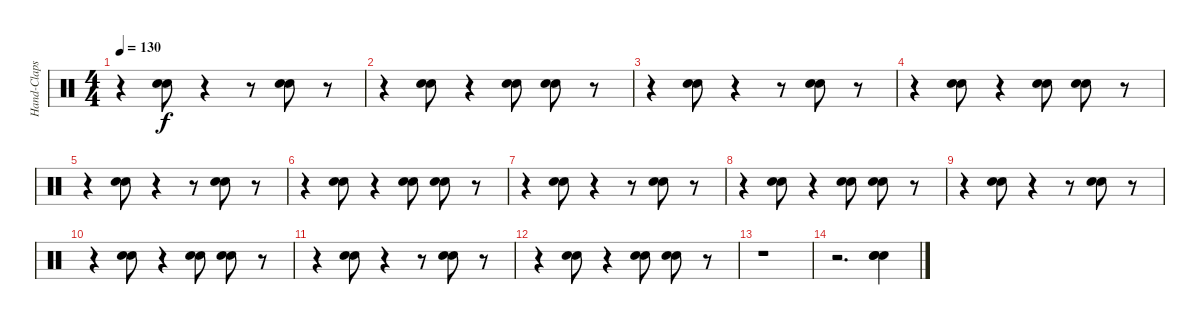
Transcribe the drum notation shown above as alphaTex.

\track ("Hand-Claps" "Hand-Claps") {instrument percussion}
\staff {score}
\articulation defaults
\ts (4 4)
\tempo 130
\clef neutral
\ks c
r.4{dy f} ("Hand Clap (hit)" "Hand Clap (hit)").8 r.4 r.8 ("Hand Clap (hit)" "Hand Clap (hit)").8 r.8 |
r.4 ("Hand Clap (hit)" "Hand Clap (hit)").8 r.4 ("Hand Clap (hit)" "Hand Clap (hit)").8 ("Hand Clap (hit)" "Hand Clap (hit)").8 r.8 |
r.4 ("Hand Clap (hit)" "Hand Clap (hit)").8 r.4 r.8 ("Hand Clap (hit)" "Hand Clap (hit)").8 r.8 |
r.4 ("Hand Clap (hit)" "Hand Clap (hit)").8 r.4 ("Hand Clap (hit)" "Hand Clap (hit)").8 ("Hand Clap (hit)" "Hand Clap (hit)").8 r.8 |
r.4 ("Hand Clap (hit)" "Hand Clap (hit)").8 r.4 r.8 ("Hand Clap (hit)" "Hand Clap (hit)").8 r.8 |
r.4 ("Hand Clap (hit)" "Hand Clap (hit)").8 r.4 ("Hand Clap (hit)" "Hand Clap (hit)").8 ("Hand Clap (hit)" "Hand Clap (hit)").8 r.8 |
r.4 ("Hand Clap (hit)" "Hand Clap (hit)").8 r.4 r.8 ("Hand Clap (hit)" "Hand Clap (hit)").8 r.8 |
r.4 ("Hand Clap (hit)" "Hand Clap (hit)").8 r.4 ("Hand Clap (hit)" "Hand Clap (hit)").8 ("Hand Clap (hit)" "Hand Clap (hit)").8 r.8 |
r.4 ("Hand Clap (hit)" "Hand Clap (hit)").8 r.4 r.8 ("Hand Clap (hit)" "Hand Clap (hit)").8 r.8 |
r.4 ("Hand Clap (hit)" "Hand Clap (hit)").8 r.4 ("Hand Clap (hit)" "Hand Clap (hit)").8 ("Hand Clap (hit)" "Hand Clap (hit)").8 r.8 |
r.4 ("Hand Clap (hit)" "Hand Clap (hit)").8 r.4 r.8 ("Hand Clap (hit)" "Hand Clap (hit)").8 r.8 |
r.4 ("Hand Clap (hit)" "Hand Clap (hit)").8 r.4 ("Hand Clap (hit)" "Hand Clap (hit)").8 ("Hand Clap (hit)" "Hand Clap (hit)").8 r.8 |
r.1 |
r.2{d} ("Hand Clap (hit)" "Hand Clap (hit)" "Hand Clap (hit)").4
